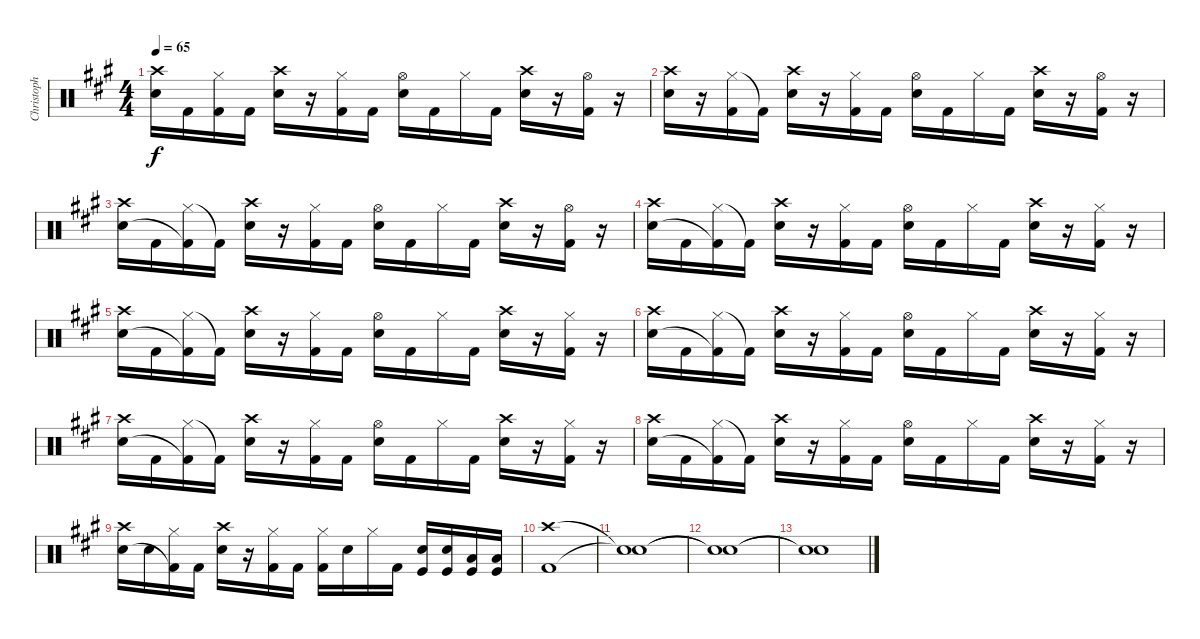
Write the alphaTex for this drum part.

\track ("Christoph Doom Schneider - Drums" "Christoph ") {instrument percussion}
\staff {score}
\articulation defaults
\ts (4 4)
\tempo 65
\clef neutral
\ks a
("Crash high (hit)" "Electric Snare (hit)").16{dy f} "Kick (hit) 2".16 ("Hi-Hat (closed)" "Kick (hit) 2").16 "Kick (hit) 2".16 ("Crash high (hit)" "Electric Snare (hit)").16 r.16 ("Hi-Hat (closed)" "Kick (hit) 2").16 "Kick (hit) 2".16 ("Hi-Hat (open)" "Electric Snare (hit)").16 "Kick (hit) 2".16 "Hi-Hat (closed)".16 "Kick (hit) 2"{tr (36 64)}.16 ("Crash high (hit)" "Electric Snare (hit)").16 r.16 ("Hi-Hat (open)" "Kick (hit) 2").16 r.16 |
("Crash high (hit)" "Electric Snare (hit)").16 r.16 ("Hi-Hat (closed)" "Kick (hit) 2"{tr (36 64)}).16 "Kick (hit) 2"{t}.16 ("Crash high (hit)" "Electric Snare (hit)").16 r.16 ("Hi-Hat (closed)" "Kick (hit) 2").16 "Kick (hit) 2".16 ("Hi-Hat (open)" "Electric Snare (hit)").16 "Kick (hit) 2".16 "Hi-Hat (closed)".16 "Kick (hit) 2".16 ("Crash high (hit)" "Electric Snare (hit)").16 r.16 ("Hi-Hat (open)" "Kick (hit) 2").16 r.16 |
("Crash high (hit)" "Electric Snare (hit)").16 "Kick (hit) 2"{tr (36 32)}.16 ("Hi-Hat (closed)" "Kick (hit) 2"{t}).16 "Kick (hit) 2"{t}.16 ("Crash high (hit)" "Electric Snare (hit)").16 r.16 ("Hi-Hat (closed)" "Kick (hit) 2").16 "Kick (hit) 2".16 ("Hi-Hat (open)" "Electric Snare (hit)").16 "Kick (hit) 2".16 "Hi-Hat (closed)".16 "Kick (hit) 2".16 ("Crash high (hit)" "Electric Snare (hit)").16 r.16 ("Hi-Hat (open)" "Kick (hit) 2").16 r.16 |
("Crash high (hit)" "Electric Snare (hit)").16 "Kick (hit) 2"{tr (36 32)}.16 ("Hi-Hat (closed)" "Kick (hit) 2"{t}).16 "Kick (hit) 2"{t}.16 ("Crash high (hit)" "Electric Snare (hit)").16 r.16 ("Hi-Hat (closed)" "Kick (hit) 2").16 "Kick (hit) 2".16 ("Hi-Hat (open)" "Electric Snare (hit)").16 "Kick (hit) 2".16 "Hi-Hat (closed)".16 "Kick (hit) 2"{tr (36 32)}.16 ("Crash high (hit)" "Electric Snare (hit)").16 r.16 ("Hi-Hat (closed)" "Kick (hit) 2").16 r.16 |
("Crash high (hit)" "Electric Snare (hit)").16 "Kick (hit) 2"{tr (36 32)}.16 ("Hi-Hat (closed)" "Kick (hit) 2"{t}).16 "Kick (hit) 2"{t}.16 ("Crash high (hit)" "Electric Snare (hit)").16 r.16 ("Hi-Hat (closed)" "Kick (hit) 2").16 "Kick (hit) 2".16 ("Hi-Hat (open)" "Electric Snare (hit)").16 "Kick (hit) 2".16 "Hi-Hat (closed)".16 "Kick (hit) 2".16 ("Crash high (hit)" "Electric Snare (hit)").16 r.16 ("Hi-Hat (closed)" "Kick (hit) 2").16 r.16 |
("Crash high (hit)" "Electric Snare (hit)").16 "Kick (hit) 2"{tr (36 32)}.16 ("Hi-Hat (closed)" "Kick (hit) 2"{t}).16 "Kick (hit) 2"{t}.16 ("Crash high (hit)" "Electric Snare (hit)").16 r.16 ("Hi-Hat (closed)" "Kick (hit) 2").16 "Kick (hit) 2".16 ("Hi-Hat (open)" "Electric Snare (hit)").16 "Kick (hit) 2".16 "Hi-Hat (closed)".16 "Kick (hit) 2"{tr (36 64)}.16 ("Crash high (hit)" "Electric Snare (hit)").16 r.16 ("Hi-Hat (closed)" "Kick (hit) 2").16 r.16 |
("Crash high (hit)" "Electric Snare (hit)").16 "Kick (hit) 2"{tr (36 32)}.16 ("Hi-Hat (closed)" "Kick (hit) 2"{t}).16 "Kick (hit) 2"{t}.16 ("Crash high (hit)" "Electric Snare (hit)").16 r.16 ("Hi-Hat (closed)" "Kick (hit) 2").16 "Kick (hit) 2".16 ("Hi-Hat (open)" "Electric Snare (hit)").16 "Kick (hit) 2".16 "Hi-Hat (closed)".16 "Kick (hit) 2".16 ("Crash high (hit)" "Electric Snare (hit)").16 r.16 ("Hi-Hat (closed)" "Kick (hit) 2").16 r.16 |
("Crash high (hit)" "Electric Snare (hit)").16 "Kick (hit) 2"{tr (36 32)}.16 ("Hi-Hat (closed)" "Kick (hit) 2"{t}).16 "Kick (hit) 2"{t}.16 ("Crash high (hit)" "Electric Snare (hit)").16 r.16 ("Hi-Hat (closed)" "Kick (hit) 2").16 "Kick (hit) 2".16 ("Hi-Hat (open)" "Electric Snare (hit)").16 "Kick (hit) 2".16 "Hi-Hat (closed)".16 "Kick (hit) 2".16 ("Crash high (hit)" "Electric Snare (hit)").16 r.16 ("Hi-Hat (closed)" "Kick (hit) 2").16 r.16 |
("Crash high (hit)" "Electric Snare (hit)").16 "Electric Snare (hit)".16 ("Hi-Hat (closed)" "Kick (hit) 2"{t}).16 "Kick (hit) 2".16 ("Crash high (hit)" "Electric Snare (hit)").16 r.16 ("Hi-Hat (closed)" "Kick (hit) 2").16 "Kick (hit) 2".16 ("Hi-Hat (closed)" "Kick (hit) 2").16 "Electric Snare (hit)".16 "Hi-Hat (closed)".16 "Kick (hit) 2".16 ("Snare (hit) 2" "Kick (hit)").16 ("Snare (hit) 2" "Kick (hit)").16 ("Low Floor Tom (hit)" "Kick (hit)").16 ("Low Floor Tom (hit)" "Kick (hit)").16 |
("Crash high (hit)" "Kick (hit) 2").1 |
("Snare (hit)"{t} "Snare (hit)"{t}).1 |
("Snare (hit)"{t} "Snare (hit)"{t}).1 |
("Snare (hit)"{t} "Snare (hit)"{t}).1
